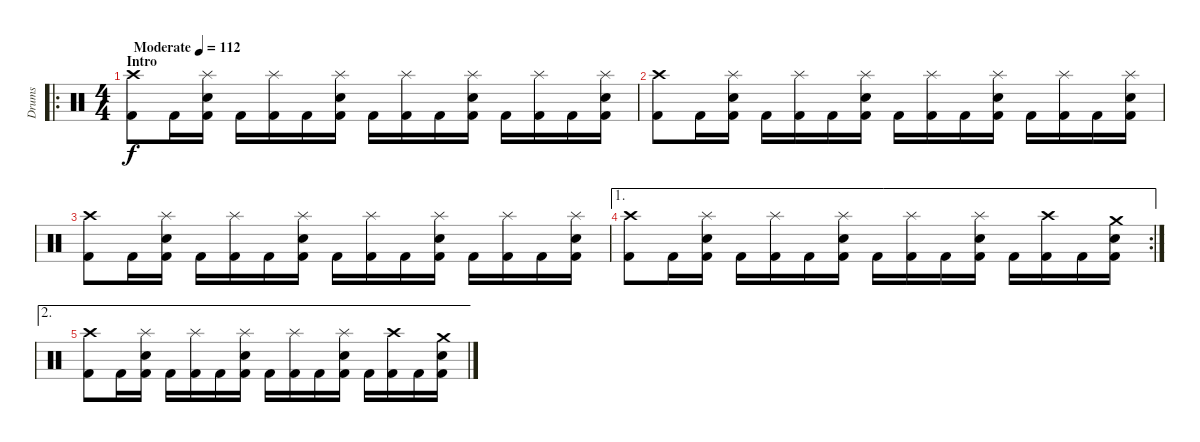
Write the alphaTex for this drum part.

\track ("Drums" "Drums") {instrument percussion}
\staff {score}
\articulation defaults
\ro
\ts (4 4)
\section ("" "Intro")
\tempo (112 "Moderate")
\clef neutral
\ks c
("Crash high (hit)" "Kick (hit) 2").8{dy f} "Kick (hit) 2".16 ("Splash (hit)" "Snare (hit) 2" "Kick (hit) 2").16 "Kick (hit) 2".16 ("Splash (hit)" "Kick (hit) 2").16 "Kick (hit) 2".16 ("Splash (hit)" "Snare (hit) 2" "Kick (hit) 2").16 "Kick (hit) 2".16 ("Splash (hit)" "Kick (hit) 2").16 "Kick (hit) 2".16 ("Splash (hit)" "Snare (hit) 2" "Kick (hit) 2").16 "Kick (hit) 2".16 ("Splash (hit)" "Kick (hit) 2").16 "Kick (hit) 2".16 ("Splash (hit)" "Snare (hit) 2" "Kick (hit) 2").16 |
("Crash high (hit)" "Kick (hit) 2").8 "Kick (hit) 2".16 ("Splash (hit)" "Snare (hit) 2" "Kick (hit) 2").16 "Kick (hit) 2".16 ("Splash (hit)" "Kick (hit) 2").16 "Kick (hit) 2".16 ("Splash (hit)" "Snare (hit) 2" "Kick (hit) 2").16 "Kick (hit) 2".16 ("Splash (hit)" "Kick (hit) 2").16 "Kick (hit) 2".16 ("Splash (hit)" "Snare (hit) 2" "Kick (hit) 2").16 "Kick (hit) 2".16 ("Splash (hit)" "Kick (hit) 2").16 "Kick (hit) 2".16 ("Splash (hit)" "Snare (hit) 2" "Kick (hit) 2").16 |
("Crash high (hit)" "Kick (hit) 2").8 "Kick (hit) 2".16 ("Splash (hit)" "Snare (hit) 2" "Kick (hit) 2").16 "Kick (hit) 2".16 ("Splash (hit)" "Kick (hit) 2").16 "Kick (hit) 2".16 ("Splash (hit)" "Snare (hit) 2" "Kick (hit) 2").16 "Kick (hit) 2".16 ("Splash (hit)" "Kick (hit) 2").16 "Kick (hit) 2".16 ("Splash (hit)" "Snare (hit) 2" "Kick (hit) 2").16 "Kick (hit) 2".16 ("Splash (hit)" "Kick (hit) 2").16 "Kick (hit) 2".16 ("Splash (hit)" "Snare (hit) 2" "Kick (hit) 2").16 |
\ae 1
\rc 2
("Crash high (hit)" "Kick (hit) 2").8 "Kick (hit) 2".16 ("Splash (hit)" "Snare (hit) 2" "Kick (hit) 2").16 "Kick (hit) 2".16 ("Splash (hit)" "Kick (hit) 2").16 "Kick (hit) 2".16 ("Splash (hit)" "Snare (hit) 2" "Kick (hit) 2").16 "Kick (hit) 2".16 ("Splash (hit)" "Kick (hit) 2").16 "Kick (hit) 2".16 ("Splash (hit)" "Snare (hit) 2" "Kick (hit) 2").16 "Kick (hit) 2".16 ("Crash high (hit)" "Kick (hit) 2").16 "Kick (hit) 2".16 ("Crash medium (hit)" "Snare (hit) 2" "Kick (hit) 2").16 |
\ae 2
("Crash high (hit)" "Kick (hit) 2").8 "Kick (hit) 2".16 ("Splash (hit)" "Snare (hit) 2" "Kick (hit) 2").16 "Kick (hit) 2".16 ("Splash (hit)" "Kick (hit) 2").16 "Kick (hit) 2".16 ("Splash (hit)" "Snare (hit) 2" "Kick (hit) 2").16 "Kick (hit) 2".16 ("Splash (hit)" "Kick (hit) 2").16 "Kick (hit) 2".16 ("Splash (hit)" "Snare (hit) 2" "Kick (hit) 2").16 "Kick (hit) 2".16 ("Crash high (hit)" "Kick (hit) 2").16 "Kick (hit) 2".16 ("Crash medium (hit)" "Snare (hit) 2" "Kick (hit) 2").16
